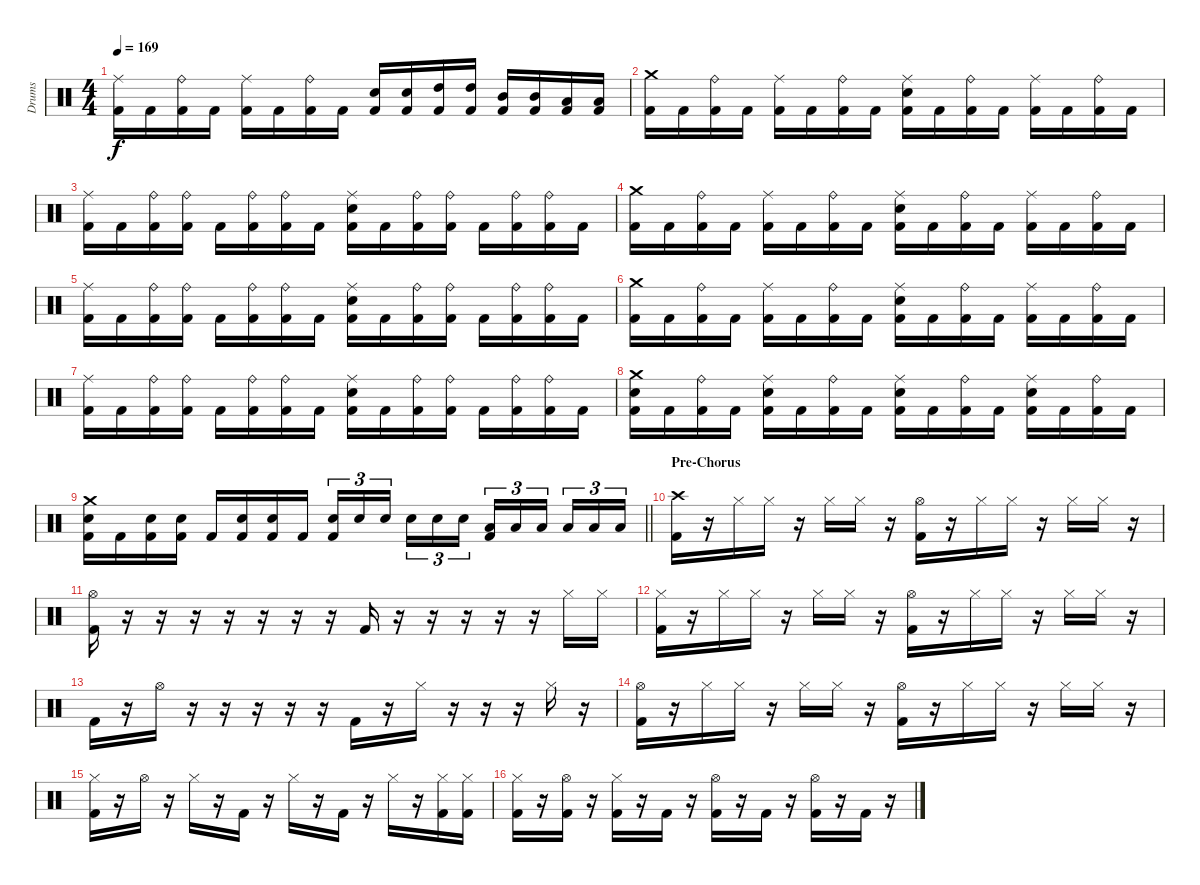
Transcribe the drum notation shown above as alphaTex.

\track ("Drums" "Drums") {instrument percussion}
\staff {score}
\articulation defaults
\ts (4 4)
\tempo 169
\clef neutral
\ks c
("Ride (middle)" "Kick (hit) 2").16{dy f} "Kick (hit) 2".16 ("Ride (bell)" "Kick (hit) 2").16 "Kick (hit) 2".16 ("Ride (middle)" "Kick (hit) 2").16 "Kick (hit) 2".16 ("Ride (bell)" "Kick (hit) 2").16 "Kick (hit) 2".16 ("Snare (hit) 2" "Kick (hit) 2").16 ("Snare (hit) 2" "Kick (hit) 2").16 ("High Tom (hit)" "Kick (hit) 2").16 ("High Tom (hit)" "Kick (hit) 2").16 ("Mid Tom (hit)" "Kick (hit) 2").16 ("Mid Tom (hit)" "Kick (hit) 2").16 ("Low Tom (hit)" "Kick (hit) 2").16 ("Low Tom (hit)" "Kick (hit) 2").16 |
("Crash medium (hit)" "Kick (hit) 2").16 "Kick (hit) 2".16 ("Ride (bell)" "Kick (hit) 2").16 "Kick (hit) 2".16 ("Ride (middle)" "Kick (hit) 2").16 "Kick (hit) 2".16 ("Ride (bell)" "Kick (hit) 2").16 "Kick (hit) 2".16 ("Ride (middle)" "Snare (hit) 2" "Kick (hit) 2").16 "Kick (hit) 2".16 ("Ride (bell)" "Kick (hit) 2").16 "Kick (hit) 2".16 ("Ride (middle)" "Kick (hit) 2").16 "Kick (hit) 2".16 ("Ride (bell)" "Kick (hit) 2").16 "Kick (hit) 2".16 |
("Ride (middle)" "Kick (hit) 2").16 "Kick (hit) 2".16 ("Ride (bell)" "Kick (hit) 2").16 ("Ride (bell)" "Kick (hit) 2").16 "Kick (hit) 2".16 ("Ride (bell)" "Kick (hit) 2").16 ("Ride (bell)" "Kick (hit) 2").16 "Kick (hit) 2".16 ("Ride (middle)" "Snare (hit) 2" "Kick (hit) 2").16 "Kick (hit) 2".16 ("Ride (bell)" "Kick (hit) 2").16 ("Ride (bell)" "Kick (hit) 2").16 "Kick (hit) 2".16 ("Ride (bell)" "Kick (hit) 2").16 ("Ride (bell)" "Kick (hit) 2").16 "Kick (hit) 2".16 |
("Crash medium (hit)" "Kick (hit) 2").16 "Kick (hit) 2".16 ("Ride (bell)" "Kick (hit) 2").16 "Kick (hit) 2".16 ("Ride (middle)" "Kick (hit) 2").16 "Kick (hit) 2".16 ("Ride (bell)" "Kick (hit) 2").16 "Kick (hit) 2".16 ("Ride (middle)" "Snare (hit) 2" "Kick (hit) 2").16 "Kick (hit) 2".16 ("Ride (bell)" "Kick (hit) 2").16 "Kick (hit) 2".16 ("Ride (middle)" "Kick (hit) 2").16 "Kick (hit) 2".16 ("Ride (bell)" "Kick (hit) 2").16 "Kick (hit) 2".16 |
("Ride (middle)" "Kick (hit) 2").16 "Kick (hit) 2".16 ("Ride (bell)" "Kick (hit) 2").16 ("Ride (bell)" "Kick (hit) 2").16 "Kick (hit) 2".16 ("Ride (bell)" "Kick (hit) 2").16 ("Ride (bell)" "Kick (hit) 2").16 "Kick (hit) 2".16 ("Ride (middle)" "Snare (hit) 2" "Kick (hit) 2").16 "Kick (hit) 2".16 ("Ride (bell)" "Kick (hit) 2").16 ("Ride (bell)" "Kick (hit) 2").16 "Kick (hit) 2".16 ("Ride (bell)" "Kick (hit) 2").16 ("Ride (bell)" "Kick (hit) 2").16 "Kick (hit) 2".16 |
("Crash medium (hit)" "Kick (hit) 2").16 "Kick (hit) 2".16 ("Ride (bell)" "Kick (hit) 2").16 "Kick (hit) 2".16 ("Ride (middle)" "Kick (hit) 2").16 "Kick (hit) 2".16 ("Ride (bell)" "Kick (hit) 2").16 "Kick (hit) 2".16 ("Ride (middle)" "Snare (hit) 2" "Kick (hit) 2").16 "Kick (hit) 2".16 ("Ride (bell)" "Kick (hit) 2").16 "Kick (hit) 2".16 ("Ride (middle)" "Kick (hit) 2").16 "Kick (hit) 2".16 ("Ride (bell)" "Kick (hit) 2").16 "Kick (hit) 2".16 |
("Ride (middle)" "Kick (hit) 2").16 "Kick (hit) 2".16 ("Ride (bell)" "Kick (hit) 2").16 ("Ride (bell)" "Kick (hit) 2").16 "Kick (hit) 2".16 ("Ride (bell)" "Kick (hit) 2").16 ("Ride (bell)" "Kick (hit) 2").16 "Kick (hit) 2".16 ("Ride (middle)" "Snare (hit) 2" "Kick (hit) 2").16 "Kick (hit) 2".16 ("Ride (bell)" "Kick (hit) 2").16 ("Ride (bell)" "Kick (hit) 2").16 "Kick (hit) 2".16 ("Ride (bell)" "Kick (hit) 2").16 ("Ride (bell)" "Kick (hit) 2").16 "Kick (hit) 2".16 |
("Crash medium (hit)" "Snare (hit) 2" "Kick (hit) 2").16 "Kick (hit) 2".16 ("Ride (bell)" "Kick (hit) 2").16 "Kick (hit) 2".16 ("Ride (middle)" "Snare (hit) 2" "Kick (hit) 2").16 "Kick (hit) 2".16 ("Ride (bell)" "Kick (hit) 2").16 "Kick (hit) 2".16 ("Ride (middle)" "Snare (hit) 2" "Kick (hit) 2").16 "Kick (hit) 2".16 ("Ride (bell)" "Kick (hit) 2").16 "Kick (hit) 2".16 ("Ride (middle)" "Snare (hit) 2" "Kick (hit) 2").16 "Kick (hit) 2".16 ("Ride (bell)" "Kick (hit) 2").16 "Kick (hit) 2".16 |
\barLineRight lightlight
("Crash medium (hit)" "Snare (hit) 2" "Kick (hit) 2").16 "Kick (hit) 2".16 ("Snare (hit) 2" "Kick (hit) 2").16 ("Snare (hit) 2" "Kick (hit) 2").16 "Kick (hit) 2".16 ("Snare (hit) 2" "Kick (hit) 2").16 ("Snare (hit) 2" "Kick (hit) 2").16 "Kick (hit) 2".16 ("Snare (hit) 2" "Kick (hit) 2").16{tu (3 2)} "Snare (hit) 2".16{tu (3 2)} "Snare (hit) 2".16{tu (3 2) beam splitsecondary} "Snare (hit) 2".16{tu (3 2)} "Snare (hit) 2".16{tu (3 2)} "Snare (hit) 2".16{tu (3 2)} ("Low Tom (hit)" "Kick (hit) 2").16{tu (3 2)} "Low Tom (hit)".16{tu (3 2)} "Low Tom (hit)".16{tu (3 2) beam splitsecondary} "Low Tom (hit)".16{tu (3 2)} "Low Tom (hit)".16{tu (3 2)} "Low Tom (hit)".16{tu (3 2)} |
\section ("" "Pre-Chorus")
("Crash high (hit)" "Kick (hit) 2").16 r.16 "Hi-Hat (closed)".16 "Hi-Hat (closed)".16 r.16 "Hi-Hat (closed)".16 "Hi-Hat (closed)".16 r.16 ("Hi-Hat (open)" "Kick (hit) 2").16 r.16 "Hi-Hat (closed)".16 "Hi-Hat (closed)".16 r.16 "Hi-Hat (closed)".16 "Hi-Hat (closed)".16 r.16 |
("Hi-Hat (open)" "Kick (hit) 2").16 r.16 r.16 r.16 r.16 r.16 r.16 r.16 "Kick (hit) 2".16 r.16 r.16 r.16 r.16 r.16 "Hi-Hat (closed)".16 "Hi-Hat (closed)".16 |
("Hi-Hat (closed)" "Kick (hit) 2").16 r.16 "Hi-Hat (closed)".16 "Hi-Hat (closed)".16 r.16 "Hi-Hat (closed)".16 "Hi-Hat (closed)".16 r.16 ("Hi-Hat (open)" "Kick (hit) 2").16 r.16 "Hi-Hat (closed)".16 "Hi-Hat (closed)".16 r.16 "Hi-Hat (closed)".16 "Hi-Hat (closed)".16 r.16 |
"Kick (hit) 2".16 r.16 "Hi-Hat (open)".16 r.16 r.16 r.16 r.16 r.16 "Kick (hit) 2".16 r.16 "Hi-Hat (closed)".16 r.16 r.16 r.16 "Hi-Hat (closed)".16 r.16 |
("Hi-Hat (open)" "Kick (hit) 2").16 r.16 "Hi-Hat (closed)".16 "Hi-Hat (closed)".16 r.16 "Hi-Hat (closed)".16 "Hi-Hat (closed)".16 r.16 ("Hi-Hat (open)" "Kick (hit) 2").16 r.16 "Hi-Hat (closed)".16 "Hi-Hat (closed)".16 r.16 "Hi-Hat (closed)".16 "Hi-Hat (closed)".16 r.16 |
("Hi-Hat (closed)" "Kick (hit) 2").16 r.16 "Hi-Hat (open)".16 r.16 "Hi-Hat (closed)".16 r.16 "Kick (hit) 2".16 r.16 "Hi-Hat (closed)".16 r.16 "Kick (hit) 2".16 r.16 "Hi-Hat (closed)".16 r.16 ("Hi-Hat (closed)" "Kick (hit) 2").16 ("Hi-Hat (closed)" "Kick (hit) 2").16 |
("Hi-Hat (closed)" "Kick (hit) 2").16 r.16 ("Hi-Hat (open)" "Kick (hit) 2").16 r.16 ("Hi-Hat (closed)" "Kick (hit) 2").16 r.16 "Kick (hit) 2".16 r.16 ("Hi-Hat (open)" "Kick (hit) 2").16 r.16 "Kick (hit) 2".16 r.16 ("Hi-Hat (open)" "Kick (hit) 2").16 r.16 "Kick (hit) 2".16 r.16
